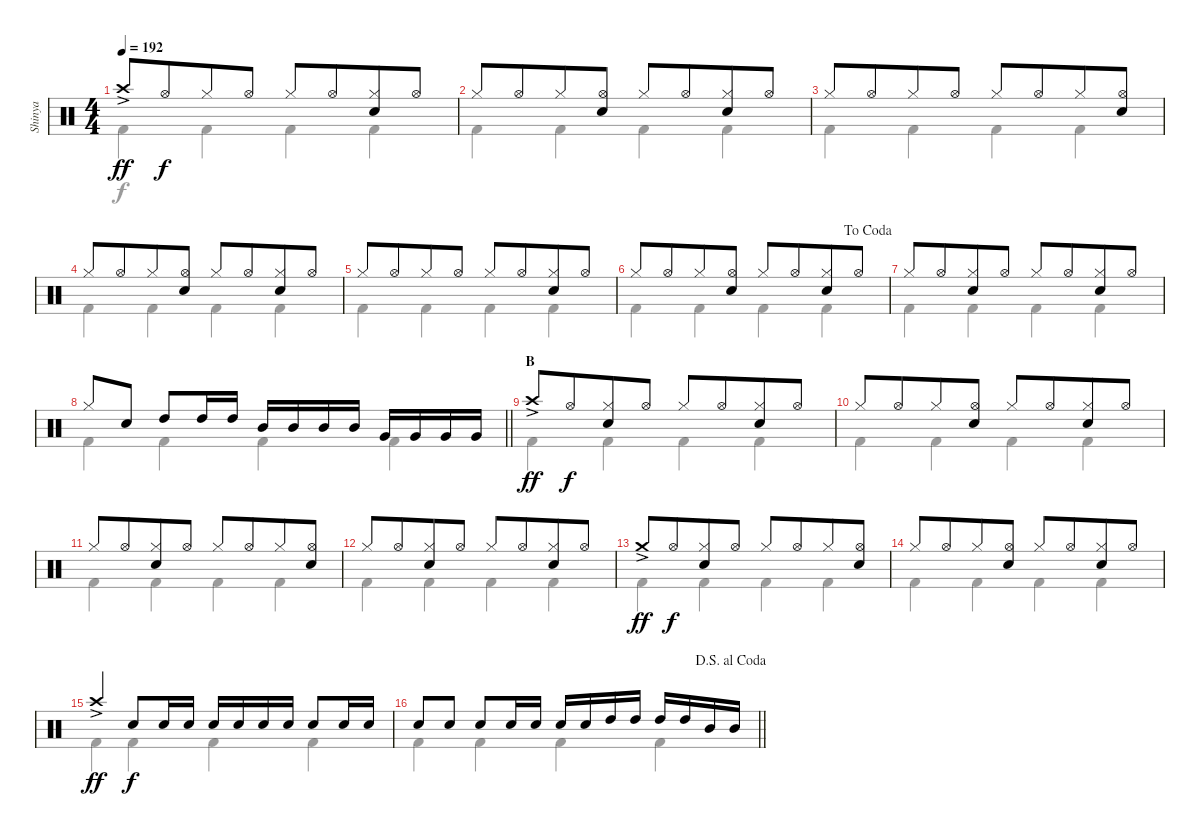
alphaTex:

\track ("Shinya" "Shinya") {instrument percussion}
\staff {score}
\articulation defaults
\voice
\ts (4 4)
\tempo 192
\clef neutral
\ks c "Crash high (hit)"{ac}.8{dy ff} "Hi-Hat (open)".8{dy f beam merge} "Hi-Hat (closed)".8 "Hi-Hat (open)".8 "Hi-Hat (closed)".8 "Hi-Hat (open)".8{beam merge}
("Hi-Hat (closed)" "Snare (hit) 2").8 "Hi-Hat (open)".8 |
"Hi-Hat (closed)".8 "Hi-Hat (open)".8{beam merge} "Hi-Hat (closed)".8 ("Hi-Hat (open)" "Snare (hit) 2").8 "Hi-Hat (closed)".8 "Hi-Hat (open)".8{beam merge} ("Hi-Hat (closed)" "Snare (hit) 2").8 "Hi-Hat (open)".8 |
"Hi-Hat (closed)".8 "Hi-Hat (open)".8{beam merge} "Hi-Hat (closed)".8 "Hi-Hat (open)".8 "Hi-Hat (closed)".8 "Hi-Hat (open)".8{beam merge} "Hi-Hat (closed)".8 ("Hi-Hat (open)" "Snare (hit) 2").8 |
"Hi-Hat (closed)".8 "Hi-Hat (open)".8{beam merge} "Hi-Hat (closed)".8 ("Hi-Hat (open)" "Snare (hit) 2").8 "Hi-Hat (closed)".8 "Hi-Hat (open)".8{beam merge} ("Hi-Hat (closed)" "Snare (hit) 2").8 "Hi-Hat (open)".8 |
"Hi-Hat (closed)".8 "Hi-Hat (open)".8{beam merge} "Hi-Hat (closed)".8 "Hi-Hat (open)".8 "Hi-Hat (closed)".8 "Hi-Hat (open)".8{beam merge} ("Hi-Hat (closed)" "Snare (hit) 2").8 "Hi-Hat (open)".8 |
\jump dacoda "Hi-Hat (closed)".8 "Hi-Hat (open)".8{beam merge} "Hi-Hat (closed)".8
("Hi-Hat (open)" "Snare (hit) 2").8 "Hi-Hat (closed)".8 "Hi-Hat (open)".8{beam merge} ("Hi-Hat (closed)" "Snare (hit) 2").8 "Hi-Hat (open)".8 |
"Hi-Hat (closed)".8 "Hi-Hat (open)".8{beam merge} ("Hi-Hat (closed)" "Snare (hit) 2").8 "Hi-Hat (open)".8 "Hi-Hat (closed)".8 "Hi-Hat (open)".8{beam merge} ("Hi-Hat (closed)" "Snare (hit) 2").8 "Hi-Hat (open)".8 |
\barLineRight lightlight "Hi-Hat (closed)".8 "Snare (hit) 2".8 "High Tom (hit)".8 "High Tom (hit)".16 "High Tom (hit)".16 "Mid Tom (hit)".16 "Mid Tom (hit)".16 "Mid Tom (hit)".16 "Mid Tom (hit)".16 "Very Low Tom (hit)".16 "Very Low Tom (hit)".16 "Very Low Tom (hit)".16 "Very Low Tom (hit)".16
|
\section ("" "B")
"Crash high (hit)"{ac}.8{dy ff} "Hi-Hat (open)".8{dy f beam merge} ("Hi-Hat (closed)" "Snare (hit) 2").8 "Hi-Hat (open)".8 "Hi-Hat (closed)".8 "Hi-Hat (open)".8{beam merge} ("Hi-Hat (closed)" "Snare (hit) 2").8 "Hi-Hat (open)".8 |
"Hi-Hat (closed)".8 "Hi-Hat (open)".8{beam merge} "Hi-Hat (closed)".8 ("Hi-Hat (open)" "Snare (hit) 2").8 "Hi-Hat (closed)".8 "Hi-Hat (open)".8{beam merge} ("Hi-Hat (closed)" "Snare (hit) 2").8 "Hi-Hat (open)".8 |
"Hi-Hat (closed)".8 "Hi-Hat (open)".8{beam merge} ("Hi-Hat (closed)" "Snare (hit) 2").8 "Hi-Hat (open)".8 "Hi-Hat (closed)".8 "Hi-Hat (open)".8{beam merge} "Hi-Hat (closed)".8 ("Hi-Hat (open)" "Snare (hit) 2").8 |
"Hi-Hat (closed)".8 "Hi-Hat (open)".8{beam merge} ("Hi-Hat (closed)" "Snare (hit) 2").8 "Hi-Hat (open)".8 "Hi-Hat (closed)".8 "Hi-Hat (open)".8{beam merge} ("Hi-Hat (closed)" "Snare (hit) 2").8 "Hi-Hat (open)".8 |
"Crash medium (hit)"{ac}.8{dy ff} "Hi-Hat (open)".8{dy f beam merge} ("Hi-Hat (closed)" "Snare (hit) 2").8 "Hi-Hat (open)".8 "Hi-Hat (closed)".8 "Hi-Hat (open)".8{beam merge} "Hi-Hat (closed)".8 ("Hi-Hat (open)" "Snare (hit) 2").8 |
"Hi-Hat (closed)".8 "Hi-Hat (open)".8{beam merge} "Hi-Hat (closed)".8 ("Hi-Hat (open)" "Snare (hit) 2").8 "Hi-Hat (closed)".8 "Hi-Hat (open)".8{beam merge} ("Hi-Hat (closed)" "Snare (hit) 2").8 "Hi-Hat (open)".8 |
"Crash high (hit)"{ac}.4{dy ff} "Snare (hit) 2".8{dy f} "Snare (hit) 2".16 "Snare (hit) 2".16 "Snare (hit) 2".16 "Snare (hit) 2".16 "Snare (hit) 2".16 "Snare (hit) 2".16 "Snare (hit) 2".8 "Snare (hit) 2".16 "Snare (hit) 2".16 |
\jump dalsegnoalcoda
\barLineRight lightlight "Snare (hit) 2".8 "Snare (hit) 2".8 "Snare (hit) 2".8 "Snare (hit) 2".16 "Snare (hit) 2".16 "Snare (hit) 2".16 "Snare (hit) 2".16 "High Tom (hit)".16 "High Tom (hit)".16 "High Tom (hit)".16 "High Tom (hit)".16 "Mid Tom (hit)".16 "Mid Tom (hit)".16
\voice
\clef neutral
\ottava regular
\simile none
\ks c "Kick (hit) 2".4{dy f} "Kick (hit) 2".4 "Kick (hit) 2".4 "Kick (hit) 2".4
|
"Kick (hit) 2".4 "Kick (hit) 2".4 "Kick (hit) 2".4 "Kick (hit) 2".4 |
"Kick (hit) 2".4 "Kick (hit) 2".4 "Kick (hit) 2".4 "Kick (hit) 2".4 |
"Kick (hit) 2".4 "Kick (hit) 2".4 "Kick (hit) 2".4 "Kick (hit) 2".4 |
"Kick (hit) 2".4 "Kick (hit) 2".4 "Kick (hit) 2".4 "Kick (hit) 2".4 |
"Kick (hit) 2".4 "Kick (hit) 2".4 "Kick (hit) 2".4 "Kick (hit) 2".4 |
"Kick (hit) 2".4 "Kick (hit) 2".4 "Kick (hit) 2".4 "Kick (hit) 2".4 |
\barLineRight lightlight "Kick (hit) 2".4 "Kick (hit) 2".4 "Kick (hit) 2".4 "Kick (hit) 2".4
|
"Kick (hit) 2".4 "Kick (hit) 2".4 "Kick (hit) 2".4 "Kick (hit) 2".4 |
"Kick (hit) 2".4 "Kick (hit) 2".4 "Kick (hit) 2".4 "Kick (hit) 2".4 |
"Kick (hit) 2".4 "Kick (hit) 2".4 "Kick (hit) 2".4 "Kick (hit) 2".4 |
"Kick (hit) 2".4 "Kick (hit) 2".4 "Kick (hit) 2".4 "Kick (hit) 2".4 |
"Kick (hit) 2".4 "Kick (hit) 2".4 "Kick (hit) 2".4 "Kick (hit) 2".4 |
"Kick (hit) 2".4 "Kick (hit) 2".4 "Kick (hit) 2".4 "Kick (hit) 2".4 |
"Kick (hit) 2".4 "Kick (hit) 2".4 "Kick (hit) 2".4 "Kick (hit) 2".4 |
\barLineRight lightlight "Kick (hit) 2".4 "Kick (hit) 2".4 "Kick (hit) 2".4 "Kick (hit) 2".4
